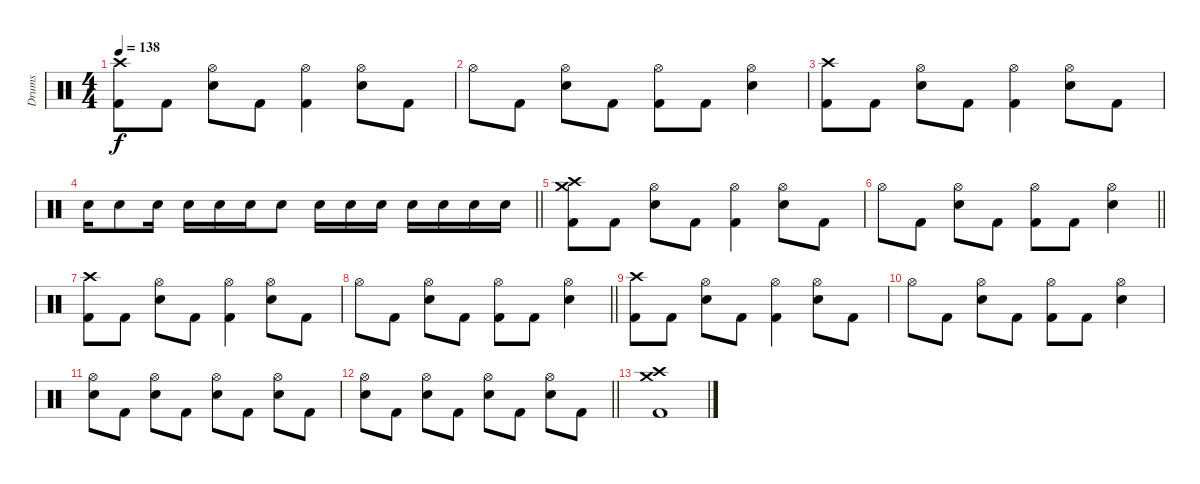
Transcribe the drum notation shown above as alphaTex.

\track ("Drums" "Drums") {instrument percussion}
\staff {score}
\articulation defaults
\ts (4 4)
\tempo 138
\clef neutral
\ks c
("Crash high (hit)" "Kick (hit) 2").8{dy f} "Kick (hit) 2".8 ("Hi-Hat (open)" "Snare (hit) 2").8 "Kick (hit) 2".8 ("Hi-Hat (open)" "Kick (hit) 2").4 ("Hi-Hat (open)" "Snare (hit) 2").8 "Kick (hit) 2".8 |
"Hi-Hat (open)".8 "Kick (hit) 2".8 ("Hi-Hat (open)" "Snare (hit) 2").8 "Kick (hit) 2".8 ("Hi-Hat (open)" "Kick (hit) 2").8 "Kick (hit) 2".8 ("Hi-Hat (open)" "Snare (hit) 2").4 |
("Crash high (hit)" "Kick (hit) 2").8 "Kick (hit) 2".8 ("Hi-Hat (open)" "Snare (hit) 2").8 "Kick (hit) 2".8 ("Hi-Hat (open)" "Kick (hit) 2").4 ("Hi-Hat (open)" "Snare (hit) 2").8 "Kick (hit) 2".8 |
\barLineRight lightlight "Snare (hit) 2".16 "Snare (hit) 2".8 "Snare (hit) 2".16 "Snare (hit) 2".16 "Snare (hit) 2".16 "Snare (hit) 2".16 "Snare (hit) 2".8 "Snare (hit) 2".16 "Snare (hit) 2".16 "Snare (hit) 2".16 "Snare (hit) 2".16 "Snare (hit) 2".16 "Snare (hit) 2".16 "Snare (hit) 2".16
|
("Crash high (hit)" "Crash medium (hit)" "Kick (hit) 2").8 "Kick (hit) 2".8 ("Hi-Hat (open)" "Snare (hit) 2").8 "Kick (hit) 2".8 ("Hi-Hat (open)" "Kick (hit) 2").4 ("Hi-Hat (open)" "Snare (hit) 2").8 "Kick (hit) 2".8 |
\barLineRight lightlight "Hi-Hat (open)".8 "Kick (hit) 2".8
("Hi-Hat (open)" "Snare (hit) 2").8 "Kick (hit) 2".8 ("Hi-Hat (open)" "Kick (hit) 2").8 "Kick (hit) 2".8 ("Hi-Hat (open)" "Snare (hit) 2").4 |
("Crash high (hit)" "Kick (hit) 2").8 "Kick (hit) 2".8 ("Hi-Hat (open)" "Snare (hit) 2").8 "Kick (hit) 2".8 ("Hi-Hat (open)" "Kick (hit) 2").4 ("Hi-Hat (open)" "Snare (hit) 2").8 "Kick (hit) 2".8 |
\barLineRight lightlight "Hi-Hat (open)".8 "Kick (hit) 2".8
("Hi-Hat (open)" "Snare (hit) 2").8 "Kick (hit) 2".8 ("Hi-Hat (open)" "Kick (hit) 2").8 "Kick (hit) 2".8 ("Hi-Hat (open)" "Snare (hit) 2").4 |
("Crash high (hit)" "Kick (hit) 2").8 "Kick (hit) 2".8 ("Hi-Hat (open)" "Snare (hit) 2").8 "Kick (hit) 2".8 ("Hi-Hat (open)" "Kick (hit) 2").4 ("Hi-Hat (open)" "Snare (hit) 2").8 "Kick (hit) 2".8 |
"Hi-Hat (open)".8 "Kick (hit) 2".8 ("Hi-Hat (open)" "Snare (hit) 2").8 "Kick (hit) 2".8 ("Hi-Hat (open)" "Kick (hit) 2").8 "Kick (hit) 2".8 ("Hi-Hat (open)" "Snare (hit) 2").4 |
("Hi-Hat (open)" "Snare (hit) 2").8 "Kick (hit) 2".8 ("Hi-Hat (open)" "Snare (hit) 2").8 "Kick (hit) 2".8 ("Hi-Hat (open)" "Snare (hit) 2").8 "Kick (hit) 2".8 ("Hi-Hat (open)" "Snare (hit) 2").8 "Kick (hit) 2".8 |
\barLineRight lightlight
("Hi-Hat (open)" "Snare (hit) 2").8 "Kick (hit) 2".8 ("Hi-Hat (open)" "Snare (hit) 2").8 "Kick (hit) 2".8 ("Hi-Hat (open)" "Snare (hit) 2").8 "Kick (hit) 2".8 ("Hi-Hat (open)" "Snare (hit) 2").8 "Kick (hit) 2".8 |
("Crash high (hit)" "Crash medium (hit)" "Kick (hit) 2").1
